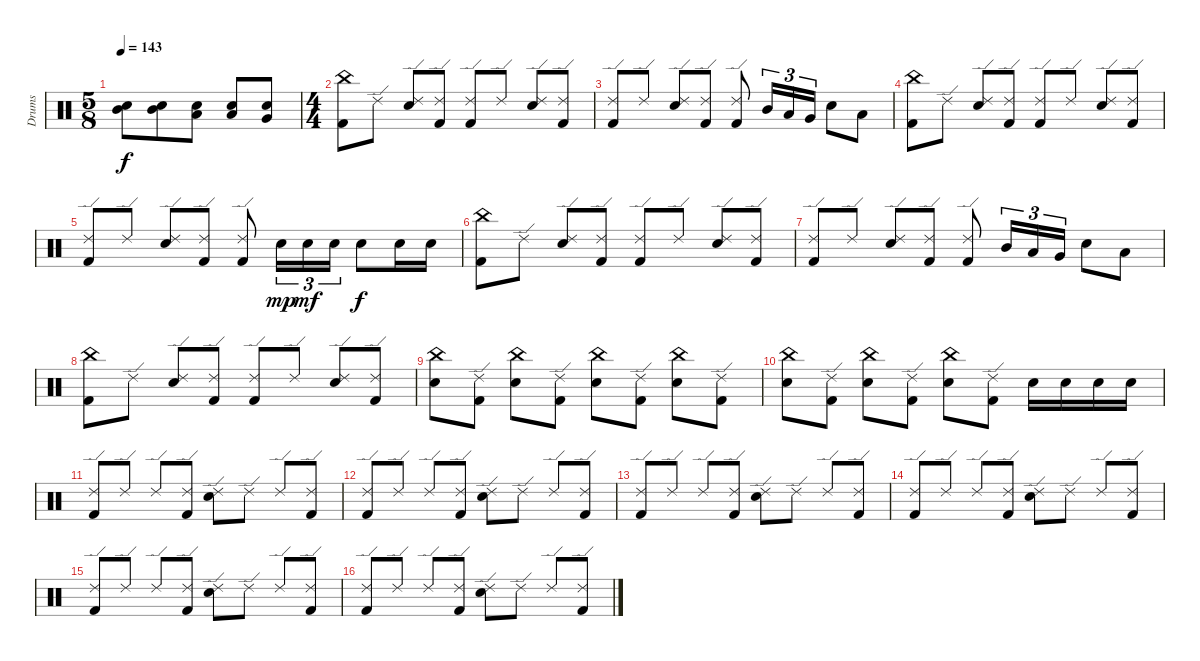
\track ("Drums" "Drums") {instrument percussion}
\staff {score}
\articulation defaults
\ts (5 8)
\tempo 143
\clef neutral
\ks c
("Mid Tom (hit)" "Electric Snare (hit)").8{dy f volume 16} ("Mid Tom (hit)" "Electric Snare (hit)").8 ("Low Tom (hit)" "Electric Snare (hit)").8 ("Low Tom (hit)" "Electric Snare (hit)").8 ("Very Low Tom (hit)" "Electric Snare (hit)").8 |
\ts (4 4)
("China (hit)" "Kick (hit) 2").8 "Ride (edge) 2".8 ("Ride (edge) 2" "Electric Snare (hit)").8 ("Ride (edge) 2" "Kick (hit) 2").8 ("Ride (edge) 2" "Kick (hit) 2").8 "Ride (edge) 2".8 ("Ride (edge) 2" "Electric Snare (hit)").8 ("Ride (edge) 2" "Kick (hit) 2").8 |
("Ride (edge) 2" "Kick (hit) 2").8 "Ride (edge) 2".8 ("Ride (edge) 2" "Electric Snare (hit)").8 ("Ride (edge) 2" "Kick (hit) 2").8 ("Ride (edge) 2" "Kick (hit) 2").8 "Mid Tom (hit)".16{tu (3 2)} "Low Tom (hit)".16{tu (3 2)} "Very Low Tom (hit)".16{tu (3 2)} "Electric Snare (hit)".8 "Low Tom (hit)".8 |
("China (hit)" "Kick (hit) 2").8 "Ride (edge) 2".8 ("Ride (edge) 2" "Electric Snare (hit)").8 ("Ride (edge) 2" "Kick (hit) 2").8 ("Ride (edge) 2" "Kick (hit) 2").8 "Ride (edge) 2".8 ("Ride (edge) 2" "Electric Snare (hit)").8 ("Ride (edge) 2" "Kick (hit) 2").8 |
("Ride (edge) 2" "Kick (hit) 2").8 "Ride (edge) 2".8 ("Ride (edge) 2" "Electric Snare (hit)").8 ("Ride (edge) 2" "Kick (hit) 2").8 ("Ride (edge) 2" "Kick (hit) 2").8 "Electric Snare (hit)".16{tu (3 2) dy mp} "Electric Snare (hit)".16{tu (3 2) dy mf} "Electric Snare (hit)".16{tu (3 2)} "Electric Snare (hit)".8{dy f} "Electric Snare (hit)".16 "Electric Snare (hit)".16 |
("China (hit)" "Kick (hit) 2").8 "Ride (edge) 2".8 ("Ride (edge) 2" "Electric Snare (hit)").8 ("Ride (edge) 2" "Kick (hit) 2").8 ("Ride (edge) 2" "Kick (hit) 2").8 "Ride (edge) 2".8 ("Ride (edge) 2" "Electric Snare (hit)").8 ("Ride (edge) 2" "Kick (hit) 2").8 |
("Ride (edge) 2" "Kick (hit) 2").8 "Ride (edge) 2".8 ("Ride (edge) 2" "Electric Snare (hit)").8 ("Ride (edge) 2" "Kick (hit) 2").8 ("Ride (edge) 2" "Kick (hit) 2").8 "Mid Tom (hit)".16{tu (3 2)} "Low Tom (hit)".16{tu (3 2)} "Very Low Tom (hit)".16{tu (3 2)} "Electric Snare (hit)".8 "Low Tom (hit)".8 |
("China (hit)" "Kick (hit) 2").8 "Ride (edge) 2".8 ("Ride (edge) 2" "Electric Snare (hit)").8 ("Ride (edge) 2" "Kick (hit) 2").8 ("Ride (edge) 2" "Kick (hit) 2").8 "Ride (edge) 2".8 ("Ride (edge) 2" "Electric Snare (hit)").8 ("Ride (edge) 2" "Kick (hit) 2").8 |
("China (hit)" "Electric Snare (hit)").8 ("Ride (edge) 2" "Kick (hit) 2").8 ("China (hit)" "Electric Snare (hit)").8 ("Ride (edge) 2" "Kick (hit) 2").8 ("China (hit)" "Electric Snare (hit)").8 ("Ride (edge) 2" "Kick (hit) 2").8 ("China (hit)" "Electric Snare (hit)").8 ("Ride (edge) 2" "Kick (hit) 2").8 |
("China (hit)" "Electric Snare (hit)").8 ("Ride (edge) 2" "Kick (hit) 2").8 ("China (hit)" "Electric Snare (hit)").8 ("Ride (edge) 2" "Kick (hit) 2").8 ("China (hit)" "Electric Snare (hit)").8 ("Ride (edge) 2" "Kick (hit) 2").8 "Electric Snare (hit)".16 "Electric Snare (hit)".16 "Electric Snare (hit)".16 "Electric Snare (hit)".16 |
("Ride (edge) 2" "Kick (hit) 2").8{volume 13} "Ride (edge) 2".8 "Ride (edge) 2".8 ("Ride (edge) 2" "Kick (hit) 2").8 ("Ride (edge) 2" "Electric Snare (hit)").8 "Ride (edge) 2".8 "Ride (edge) 2".8 ("Ride (edge) 2" "Kick (hit) 2").8 |
("Ride (edge) 2" "Kick (hit) 2").8 "Ride (edge) 2".8 "Ride (edge) 2".8 ("Ride (edge) 2" "Kick (hit) 2").8 ("Ride (edge) 2" "Electric Snare (hit)").8 "Ride (edge) 2".8 "Ride (edge) 2".8 ("Ride (edge) 2" "Kick (hit) 2").8 |
("Ride (edge) 2" "Kick (hit) 2").8 "Ride (edge) 2".8 "Ride (edge) 2".8 ("Ride (edge) 2" "Kick (hit) 2").8 ("Ride (edge) 2" "Electric Snare (hit)").8 "Ride (edge) 2".8 "Ride (edge) 2".8 ("Ride (edge) 2" "Kick (hit) 2").8 |
("Ride (edge) 2" "Kick (hit) 2").8 "Ride (edge) 2".8 "Ride (edge) 2".8 ("Ride (edge) 2" "Kick (hit) 2").8 ("Ride (edge) 2" "Electric Snare (hit)").8 "Ride (edge) 2".8 "Ride (edge) 2".8 ("Ride (edge) 2" "Kick (hit) 2").8 |
("Ride (edge) 2" "Kick (hit) 2").8 "Ride (edge) 2".8 "Ride (edge) 2".8 ("Ride (edge) 2" "Kick (hit) 2").8 ("Ride (edge) 2" "Electric Snare (hit)").8 "Ride (edge) 2".8 "Ride (edge) 2".8 ("Ride (edge) 2" "Kick (hit) 2").8 |
("Ride (edge) 2" "Kick (hit) 2").8 "Ride (edge) 2".8 "Ride (edge) 2".8 ("Ride (edge) 2" "Kick (hit) 2").8 ("Ride (edge) 2" "Electric Snare (hit)").8 "Ride (edge) 2".8 "Ride (edge) 2".8 ("Ride (edge) 2" "Kick (hit) 2").8
